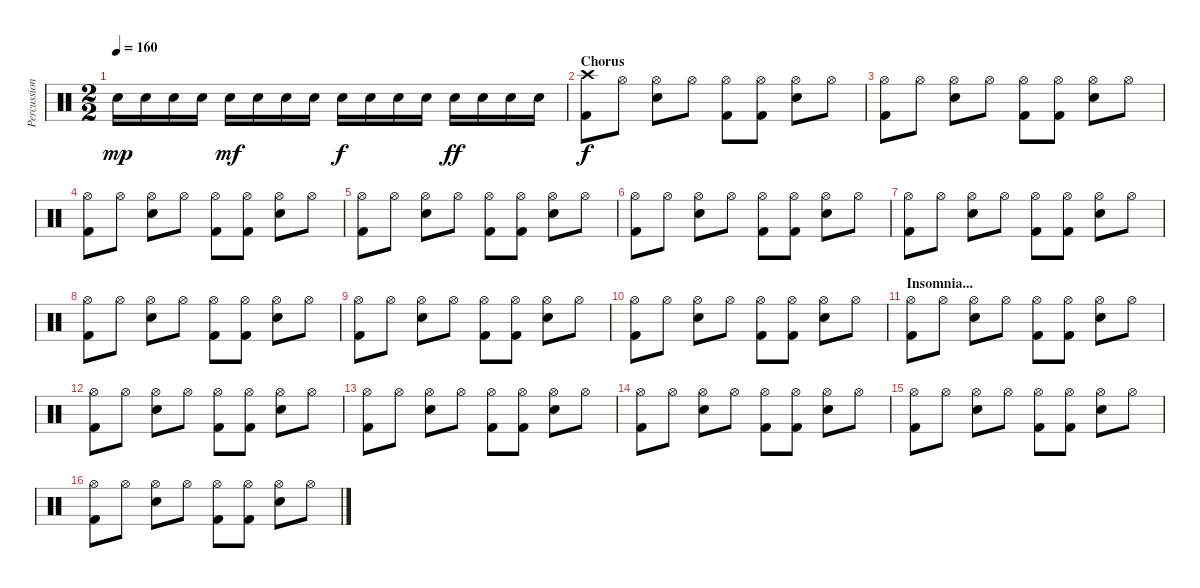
\track ("Percussion" "Percussion") {instrument percussion}
\staff {score}
\articulation defaults
\ts (2 2)
\tempo 160
\clef neutral
\ks c "Snare (hit) 2".16{dy mp} "Snare (hit) 2".16 "Snare (hit) 2".16 "Snare (hit) 2".16 "Snare (hit) 2".16{dy mf} "Snare (hit) 2".16 "Snare (hit) 2".16 "Snare (hit) 2".16 "Snare (hit) 2".16{dy f} "Snare (hit) 2".16 "Snare (hit) 2".16 "Snare (hit) 2".16 "Snare (hit) 2".16{dy ff} "Snare (hit) 2".16 "Snare (hit) 2".16 "Snare (hit) 2".16
|
\section ("" "Chorus")
("Crash high (hit)" "Kick (hit) 2").8{dy f} "Hi-Hat (open)".8 ("Hi-Hat (open)" "Snare (hit) 2").8 "Hi-Hat (open)".8 ("Hi-Hat (open)" "Kick (hit) 2").8 ("Hi-Hat (open)" "Kick (hit) 2").8 ("Hi-Hat (open)" "Snare (hit) 2").8 "Hi-Hat (open)".8 |
("Hi-Hat (open)" "Kick (hit) 2").8 "Hi-Hat (open)".8 ("Hi-Hat (open)" "Snare (hit) 2").8 "Hi-Hat (open)".8 ("Hi-Hat (open)" "Kick (hit) 2").8 ("Hi-Hat (open)" "Kick (hit) 2").8 ("Hi-Hat (open)" "Snare (hit) 2").8 "Hi-Hat (open)".8 |
("Hi-Hat (open)" "Kick (hit) 2").8 "Hi-Hat (open)".8 ("Hi-Hat (open)" "Snare (hit) 2").8 "Hi-Hat (open)".8 ("Hi-Hat (open)" "Kick (hit) 2").8 ("Hi-Hat (open)" "Kick (hit) 2").8 ("Hi-Hat (open)" "Snare (hit) 2").8 "Hi-Hat (open)".8 |
("Hi-Hat (open)" "Kick (hit) 2").8 "Hi-Hat (open)".8 ("Hi-Hat (open)" "Snare (hit) 2").8 "Hi-Hat (open)".8 ("Hi-Hat (open)" "Kick (hit) 2").8 ("Hi-Hat (open)" "Kick (hit) 2").8 ("Hi-Hat (open)" "Snare (hit) 2").8 "Hi-Hat (open)".8 |
("Hi-Hat (open)" "Kick (hit) 2").8 "Hi-Hat (open)".8 ("Hi-Hat (open)" "Snare (hit) 2").8 "Hi-Hat (open)".8 ("Hi-Hat (open)" "Kick (hit) 2").8 ("Hi-Hat (open)" "Kick (hit) 2").8 ("Hi-Hat (open)" "Snare (hit) 2").8 "Hi-Hat (open)".8 |
("Hi-Hat (open)" "Kick (hit) 2").8 "Hi-Hat (open)".8 ("Hi-Hat (open)" "Snare (hit) 2").8 "Hi-Hat (open)".8 ("Hi-Hat (open)" "Kick (hit) 2").8 ("Hi-Hat (open)" "Kick (hit) 2").8 ("Hi-Hat (open)" "Snare (hit) 2").8 "Hi-Hat (open)".8 |
("Hi-Hat (open)" "Kick (hit) 2").8 "Hi-Hat (open)".8 ("Hi-Hat (open)" "Snare (hit) 2").8 "Hi-Hat (open)".8 ("Hi-Hat (open)" "Kick (hit) 2").8 ("Hi-Hat (open)" "Kick (hit) 2").8 ("Hi-Hat (open)" "Snare (hit) 2").8 "Hi-Hat (open)".8 |
("Hi-Hat (open)" "Kick (hit) 2").8 "Hi-Hat (open)".8 ("Hi-Hat (open)" "Snare (hit) 2").8 "Hi-Hat (open)".8 ("Hi-Hat (open)" "Kick (hit) 2").8 ("Hi-Hat (open)" "Kick (hit) 2").8 ("Hi-Hat (open)" "Snare (hit) 2").8 "Hi-Hat (open)".8 |
("Hi-Hat (open)" "Kick (hit) 2").8 "Hi-Hat (open)".8 ("Hi-Hat (open)" "Snare (hit) 2").8 "Hi-Hat (open)".8 ("Hi-Hat (open)" "Kick (hit) 2").8 ("Hi-Hat (open)" "Kick (hit) 2").8 ("Hi-Hat (open)" "Snare (hit) 2").8 "Hi-Hat (open)".8 |
\section ("" "Insomnia...")
("Hi-Hat (open)" "Kick (hit) 2").8 "Hi-Hat (open)".8 ("Hi-Hat (open)" "Snare (hit) 2").8 "Hi-Hat (open)".8 ("Hi-Hat (open)" "Kick (hit) 2").8 ("Hi-Hat (open)" "Kick (hit) 2").8 ("Hi-Hat (open)" "Snare (hit) 2").8 "Hi-Hat (open)".8 |
("Hi-Hat (open)" "Kick (hit) 2").8 "Hi-Hat (open)".8 ("Hi-Hat (open)" "Snare (hit) 2").8 "Hi-Hat (open)".8 ("Hi-Hat (open)" "Kick (hit) 2").8 ("Hi-Hat (open)" "Kick (hit) 2").8 ("Hi-Hat (open)" "Snare (hit) 2").8 "Hi-Hat (open)".8 |
("Hi-Hat (open)" "Kick (hit) 2").8 "Hi-Hat (open)".8 ("Hi-Hat (open)" "Snare (hit) 2").8 "Hi-Hat (open)".8 ("Hi-Hat (open)" "Kick (hit) 2").8 ("Hi-Hat (open)" "Kick (hit) 2").8 ("Hi-Hat (open)" "Snare (hit) 2").8 "Hi-Hat (open)".8 |
("Hi-Hat (open)" "Kick (hit) 2").8 "Hi-Hat (open)".8 ("Hi-Hat (open)" "Snare (hit) 2").8 "Hi-Hat (open)".8 ("Hi-Hat (open)" "Kick (hit) 2").8 ("Hi-Hat (open)" "Kick (hit) 2").8 ("Hi-Hat (open)" "Snare (hit) 2").8 "Hi-Hat (open)".8 |
("Hi-Hat (open)" "Kick (hit) 2").8 "Hi-Hat (open)".8 ("Hi-Hat (open)" "Snare (hit) 2").8 "Hi-Hat (open)".8 ("Hi-Hat (open)" "Kick (hit) 2").8 ("Hi-Hat (open)" "Kick (hit) 2").8 ("Hi-Hat (open)" "Snare (hit) 2").8 "Hi-Hat (open)".8 |
("Hi-Hat (open)" "Kick (hit) 2").8 "Hi-Hat (open)".8 ("Hi-Hat (open)" "Snare (hit) 2").8 "Hi-Hat (open)".8 ("Hi-Hat (open)" "Kick (hit) 2").8 ("Hi-Hat (open)" "Kick (hit) 2").8 ("Hi-Hat (open)" "Snare (hit) 2").8 "Hi-Hat (open)".8
